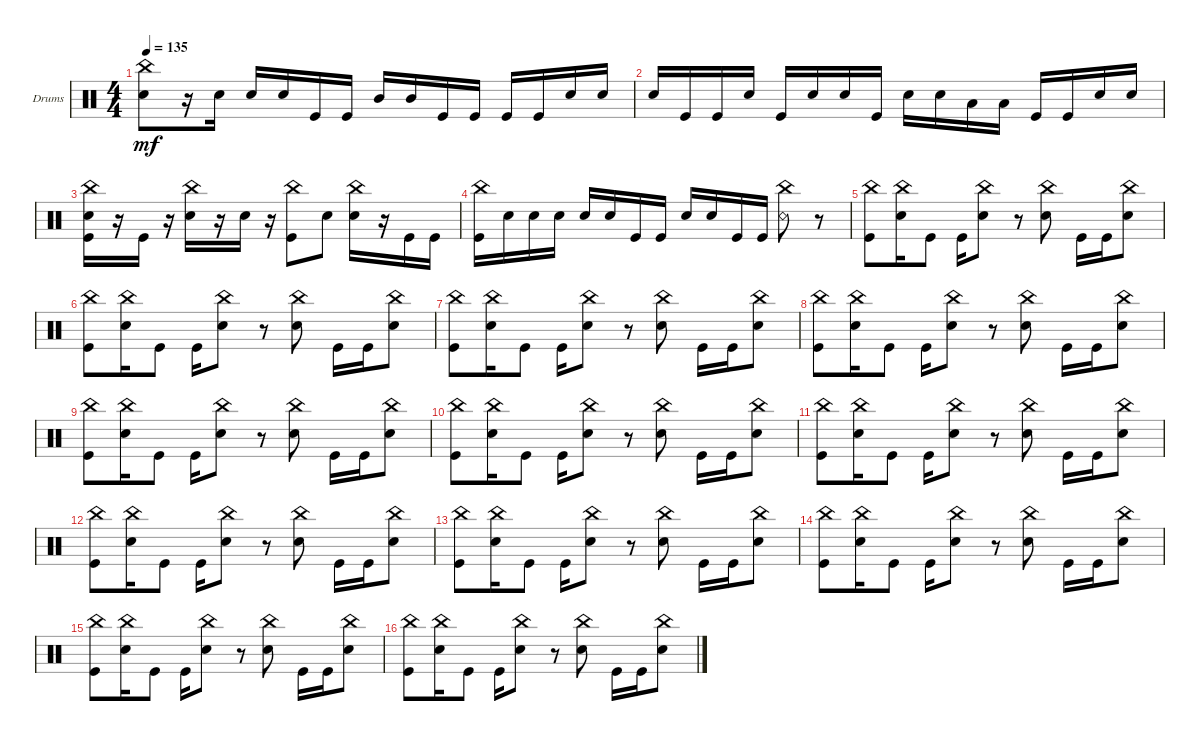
\defaultSystemsLayout 4
\bracketExtendMode groupsimilarinstruments
\firstSystemTrackNameOrientation horizontal
\otherSystemsTrackNameOrientation horizontal
\track ("Drumkit" "Drums") {instrument percussion}
\staff {score}
\articulation defaults
\ts (4 4)
\tempo 135
\clef neutral
\ks c
("China (hit)" "Snare (hit) 2").8{dy mf} r.16 "Snare (hit) 2".16 "Snare (hit) 2".16 "Snare (hit) 2".16 "Kick (hit)".16 "Kick (hit)".16 "Mid Tom (hit)".16 "Mid Tom (hit)".16 "Kick (hit)".16 "Kick (hit)".16 "Kick (hit)".16 "Kick (hit)".16 "Snare (hit) 2".16 "Snare (hit) 2".16 |
"Snare (hit) 2".16 "Kick (hit)".16 "Kick (hit)".16 "Snare (hit) 2".16 "Kick (hit)".16 "Snare (hit) 2".16 "Snare (hit) 2".16 "Kick (hit)".16 "Snare (hit) 2".16 "Snare (hit) 2".16 "Low Tom (hit)".16 "Low Tom (hit)".16 "Kick (hit)".16 "Kick (hit)".16 "Snare (hit) 2".16 "Snare (hit) 2".16 |
("Kick (hit)" "China (hit)" "Snare (hit) 2").16 r.16 "Kick (hit)".16 r.16 ("Snare (hit) 2" "China (hit)").16 r.16 "Snare (hit) 2".16 r.16 ("Kick (hit)" "China (hit)").8 "Snare (hit) 2".8 ("Snare (hit) 2" "China (hit)").16 r.16 "Kick (hit)".16 "Kick (hit)".16 |
("Kick (hit)" "China (hit)").16 "Snare (hit) 2".16 "Snare (hit) 2".16 "Snare (hit) 2".16 "Snare (hit) 2".16 "Snare (hit) 2".16 "Kick (hit)".16 "Kick (hit)".16 "Snare (hit) 2".16 "Snare (hit) 2".16 "Kick (hit)".16 "Kick (hit)".16 ("Snare (rim shot)" "China (hit)").8 r.8 |
("Kick (hit)" "China (hit)").8 ("Snare (hit) 2" "China (hit)").16 "Kick (hit)".8 "Kick (hit)".16 ("Snare (hit) 2" "China (hit)").8 r.8 ("Snare (hit) 2" "China (hit)").8 "Kick (hit)".16 "Kick (hit)".16 ("Snare (hit) 2" "China (hit)").8 |
("Kick (hit)" "China (hit)").8 ("Snare (hit) 2" "China (hit)").16 "Kick (hit)".8 "Kick (hit)".16 ("Snare (hit) 2" "China (hit)").8 r.8 ("Snare (hit) 2" "China (hit)").8 "Kick (hit)".16 "Kick (hit)".16 ("Snare (hit) 2" "China (hit)").8 |
("Kick (hit)" "China (hit)").8 ("Snare (hit) 2" "China (hit)").16 "Kick (hit)".8 "Kick (hit)".16 ("Snare (hit) 2" "China (hit)").8 r.8 ("Snare (hit) 2" "China (hit)").8 "Kick (hit)".16 "Kick (hit)".16 ("Snare (hit) 2" "China (hit)").8 |
("Kick (hit)" "China (hit)").8 ("Snare (hit) 2" "China (hit)").16 "Kick (hit)".8 "Kick (hit)".16 ("Snare (hit) 2" "China (hit)").8 r.8 ("Snare (hit) 2" "China (hit)").8 "Kick (hit)".16 "Kick (hit)".16 ("Snare (hit) 2" "China (hit)").8 |
("Kick (hit)" "China (hit)").8 ("Snare (hit) 2" "China (hit)").16 "Kick (hit)".8 "Kick (hit)".16 ("Snare (hit) 2" "China (hit)").8 r.8 ("Snare (hit) 2" "China (hit)").8 "Kick (hit)".16 "Kick (hit)".16 ("Snare (hit) 2" "China (hit)").8 |
("Kick (hit)" "China (hit)").8 ("Snare (hit) 2" "China (hit)").16 "Kick (hit)".8 "Kick (hit)".16 ("Snare (hit) 2" "China (hit)").8 r.8 ("Snare (hit) 2" "China (hit)").8 "Kick (hit)".16 "Kick (hit)".16 ("Snare (hit) 2" "China (hit)").8 |
("Kick (hit)" "China (hit)").8 ("Snare (hit) 2" "China (hit)").16 "Kick (hit)".8 "Kick (hit)".16 ("Snare (hit) 2" "China (hit)").8 r.8 ("Snare (hit) 2" "China (hit)").8 "Kick (hit)".16 "Kick (hit)".16 ("Snare (hit) 2" "China (hit)").8 |
("Kick (hit)" "China (hit)").8 ("Snare (hit) 2" "China (hit)").16 "Kick (hit)".8 "Kick (hit)".16 ("Snare (hit) 2" "China (hit)").8 r.8 ("Snare (hit) 2" "China (hit)").8 "Kick (hit)".16 "Kick (hit)".16 ("Snare (hit) 2" "China (hit)").8 |
("Kick (hit)" "China (hit)").8 ("Snare (hit) 2" "China (hit)").16 "Kick (hit)".8 "Kick (hit)".16 ("Snare (hit) 2" "China (hit)").8 r.8 ("Snare (hit) 2" "China (hit)").8 "Kick (hit)".16 "Kick (hit)".16 ("Snare (hit) 2" "China (hit)").8 |
("Kick (hit)" "China (hit)").8 ("Snare (hit) 2" "China (hit)").16 "Kick (hit)".8 "Kick (hit)".16 ("Snare (hit) 2" "China (hit)").8 r.8 ("Snare (hit) 2" "China (hit)").8 "Kick (hit)".16 "Kick (hit)".16 ("Snare (hit) 2" "China (hit)").8 |
("Kick (hit)" "China (hit)").8 ("Snare (hit) 2" "China (hit)").16 "Kick (hit)".8 "Kick (hit)".16 ("Snare (hit) 2" "China (hit)").8 r.8 ("Snare (hit) 2" "China (hit)").8 "Kick (hit)".16 "Kick (hit)".16 ("Snare (hit) 2" "China (hit)").8 |
("Kick (hit)" "China (hit)").8 ("Snare (hit) 2" "China (hit)").16 "Kick (hit)".8 "Kick (hit)".16 ("Snare (hit) 2" "China (hit)").8 r.8 ("Snare (hit) 2" "China (hit)").8 "Kick (hit)".16 "Kick (hit)".16 ("Snare (hit) 2" "China (hit)").8
